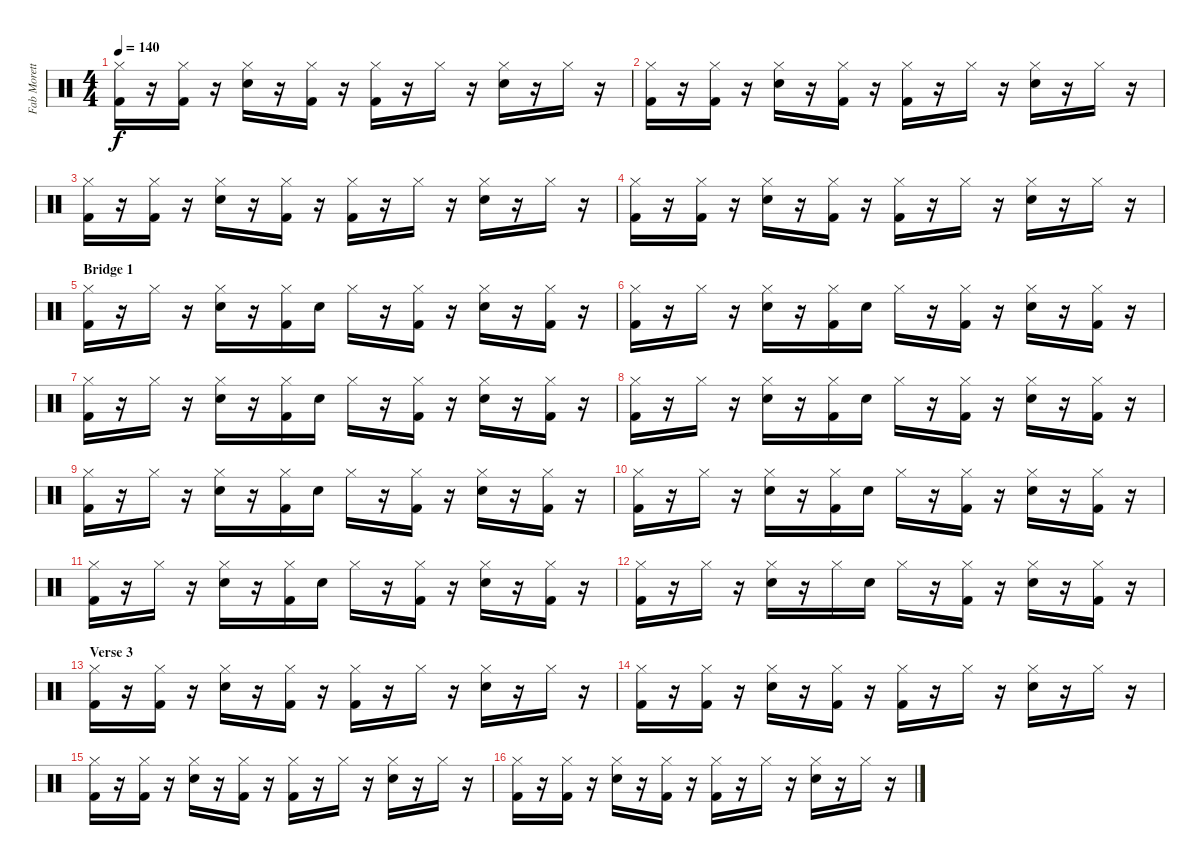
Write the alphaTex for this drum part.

\track ("Fab Moretti - Drums" "Fab Morett") {instrument percussion}
\staff {score}
\articulation defaults
\ts (4 4)
\tempo 140
\clef neutral
\ks c
("Hi-Hat (closed)" "Kick (hit) 2").16{dy f} r.16 ("Hi-Hat (closed)" "Kick (hit) 2").16 r.16 ("Hi-Hat (closed)" "Snare (hit) 2").16 r.16 ("Hi-Hat (closed)" "Kick (hit) 2").16 r.16 ("Hi-Hat (closed)" "Kick (hit) 2").16 r.16 "Hi-Hat (closed)".16 r.16 ("Hi-Hat (closed)" "Snare (hit) 2").16 r.16 "Hi-Hat (closed)".16 r.16 |
("Hi-Hat (closed)" "Kick (hit) 2").16 r.16 ("Hi-Hat (closed)" "Kick (hit) 2").16 r.16 ("Hi-Hat (closed)" "Snare (hit) 2").16 r.16 ("Hi-Hat (closed)" "Kick (hit) 2").16 r.16 ("Hi-Hat (closed)" "Kick (hit) 2").16 r.16 "Hi-Hat (closed)".16 r.16 ("Hi-Hat (closed)" "Snare (hit) 2").16 r.16 "Hi-Hat (closed)".16 r.16 |
("Hi-Hat (closed)" "Kick (hit) 2").16 r.16 ("Hi-Hat (closed)" "Kick (hit) 2").16 r.16 ("Hi-Hat (closed)" "Snare (hit) 2").16 r.16 ("Hi-Hat (closed)" "Kick (hit) 2").16 r.16 ("Hi-Hat (closed)" "Kick (hit) 2").16 r.16 "Hi-Hat (closed)".16 r.16 ("Hi-Hat (closed)" "Snare (hit) 2").16 r.16 "Hi-Hat (closed)".16 r.16 |
("Hi-Hat (closed)" "Kick (hit) 2").16 r.16 ("Hi-Hat (closed)" "Kick (hit) 2").16 r.16 ("Hi-Hat (closed)" "Snare (hit) 2").16 r.16 ("Hi-Hat (closed)" "Kick (hit) 2").16 r.16 ("Hi-Hat (closed)" "Kick (hit) 2").16 r.16 "Hi-Hat (closed)".16 r.16 ("Hi-Hat (closed)" "Snare (hit) 2").16 r.16 "Hi-Hat (closed)".16 r.16 |
\section ("" "Bridge 1")
("Hi-Hat (closed)" "Kick (hit) 2").16 r.16 "Hi-Hat (closed)".16 r.16 ("Hi-Hat (closed)" "Snare (hit) 2").16 r.16 ("Hi-Hat (closed)" "Kick (hit) 2").16 "Snare (hit) 2".16 "Hi-Hat (closed)".16 r.16 ("Hi-Hat (closed)" "Kick (hit) 2").16 r.16 ("Hi-Hat (closed)" "Snare (hit) 2").16 r.16 ("Hi-Hat (closed)" "Kick (hit) 2").16 r.16 |
("Hi-Hat (closed)" "Kick (hit) 2").16 r.16 "Hi-Hat (closed)".16 r.16 ("Hi-Hat (closed)" "Snare (hit) 2").16 r.16 ("Hi-Hat (closed)" "Kick (hit) 2").16 "Snare (hit) 2".16 "Hi-Hat (closed)".16 r.16 ("Hi-Hat (closed)" "Kick (hit) 2").16 r.16 ("Hi-Hat (closed)" "Snare (hit) 2").16 r.16 ("Hi-Hat (closed)" "Kick (hit) 2").16 r.16 |
("Hi-Hat (closed)" "Kick (hit) 2").16 r.16 "Hi-Hat (closed)".16 r.16 ("Hi-Hat (closed)" "Snare (hit) 2").16 r.16 ("Hi-Hat (closed)" "Kick (hit) 2").16 "Snare (hit) 2".16 "Hi-Hat (closed)".16 r.16 ("Hi-Hat (closed)" "Kick (hit) 2").16 r.16 ("Hi-Hat (closed)" "Snare (hit) 2").16 r.16 ("Hi-Hat (closed)" "Kick (hit) 2").16 r.16 |
("Hi-Hat (closed)" "Kick (hit) 2").16 r.16 "Hi-Hat (closed)".16 r.16 ("Hi-Hat (closed)" "Snare (hit) 2").16 r.16 ("Hi-Hat (closed)" "Kick (hit) 2").16 "Snare (hit) 2".16 "Hi-Hat (closed)".16 r.16 ("Hi-Hat (closed)" "Kick (hit) 2").16 r.16 ("Hi-Hat (closed)" "Snare (hit) 2").16 r.16 ("Hi-Hat (closed)" "Kick (hit) 2").16 r.16 |
("Hi-Hat (closed)" "Kick (hit) 2").16 r.16 "Hi-Hat (closed)".16 r.16 ("Hi-Hat (closed)" "Snare (hit) 2").16 r.16 ("Hi-Hat (closed)" "Kick (hit) 2").16 "Snare (hit) 2".16 "Hi-Hat (closed)".16 r.16 ("Hi-Hat (closed)" "Kick (hit) 2").16 r.16 ("Hi-Hat (closed)" "Snare (hit) 2").16 r.16 ("Hi-Hat (closed)" "Kick (hit) 2").16 r.16 |
("Hi-Hat (closed)" "Kick (hit) 2").16 r.16 "Hi-Hat (closed)".16 r.16 ("Hi-Hat (closed)" "Snare (hit) 2").16 r.16 ("Hi-Hat (closed)" "Kick (hit) 2").16 "Snare (hit) 2".16 "Hi-Hat (closed)".16 r.16 ("Hi-Hat (closed)" "Kick (hit) 2").16 r.16 ("Hi-Hat (closed)" "Snare (hit) 2").16 r.16 ("Hi-Hat (closed)" "Kick (hit) 2").16 r.16 |
("Hi-Hat (closed)" "Kick (hit) 2").16 r.16 "Hi-Hat (closed)".16 r.16 ("Hi-Hat (closed)" "Snare (hit) 2").16 r.16 ("Hi-Hat (closed)" "Kick (hit) 2").16 "Snare (hit) 2".16 "Hi-Hat (closed)".16 r.16 ("Hi-Hat (closed)" "Kick (hit) 2").16 r.16 ("Hi-Hat (closed)" "Snare (hit) 2").16 r.16 ("Hi-Hat (closed)" "Kick (hit) 2").16 r.16 |
("Hi-Hat (closed)" "Kick (hit) 2").16 r.16 "Hi-Hat (closed)".16 r.16 ("Hi-Hat (closed)" "Snare (hit) 2").16 r.16 "Hi-Hat (closed)".16 "Snare (hit) 2".16 "Hi-Hat (closed)".16 r.16 ("Hi-Hat (closed)" "Kick (hit) 2").16 r.16 ("Hi-Hat (closed)" "Snare (hit) 2").16 r.16 ("Hi-Hat (closed)" "Kick (hit) 2").16 r.16 |
\section ("" "Verse 3")
("Hi-Hat (closed)" "Kick (hit) 2").16 r.16 ("Hi-Hat (closed)" "Kick (hit) 2").16 r.16 ("Hi-Hat (closed)" "Snare (hit) 2").16 r.16 ("Hi-Hat (closed)" "Kick (hit) 2").16 r.16 ("Hi-Hat (closed)" "Kick (hit) 2").16 r.16 "Hi-Hat (closed)".16 r.16 ("Hi-Hat (closed)" "Snare (hit) 2").16 r.16 "Hi-Hat (closed)".16 r.16 |
("Hi-Hat (closed)" "Kick (hit) 2").16 r.16 ("Hi-Hat (closed)" "Kick (hit) 2").16 r.16 ("Hi-Hat (closed)" "Snare (hit) 2").16 r.16 ("Hi-Hat (closed)" "Kick (hit) 2").16 r.16 ("Hi-Hat (closed)" "Kick (hit) 2").16 r.16 "Hi-Hat (closed)".16 r.16 ("Hi-Hat (closed)" "Snare (hit) 2").16 r.16 "Hi-Hat (closed)".16 r.16 |
("Hi-Hat (closed)" "Kick (hit) 2").16 r.16 ("Hi-Hat (closed)" "Kick (hit) 2").16 r.16 ("Hi-Hat (closed)" "Snare (hit) 2").16 r.16 ("Hi-Hat (closed)" "Kick (hit) 2").16 r.16 ("Hi-Hat (closed)" "Kick (hit) 2").16 r.16 "Hi-Hat (closed)".16 r.16 ("Hi-Hat (closed)" "Snare (hit) 2").16 r.16 "Hi-Hat (closed)".16 r.16 |
("Hi-Hat (closed)" "Kick (hit) 2").16 r.16 ("Hi-Hat (closed)" "Kick (hit) 2").16 r.16 ("Hi-Hat (closed)" "Snare (hit) 2").16 r.16 ("Hi-Hat (closed)" "Kick (hit) 2").16 r.16 ("Hi-Hat (closed)" "Kick (hit) 2").16 r.16 "Hi-Hat (closed)".16 r.16 ("Hi-Hat (closed)" "Snare (hit) 2").16 r.16 "Hi-Hat (closed)".16 r.16
